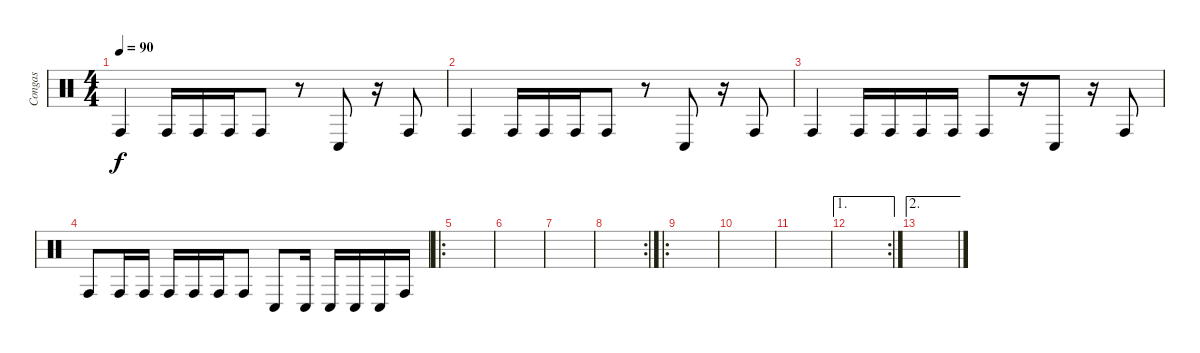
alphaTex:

\track ("Congas" "Congas") {instrument percussion}
\staff {score}
\articulation defaults
\ts (4 4)
\tempo 90
\clef neutral
\ks c "Conga high (hit)".4{dy f} "Conga high (hit)".16 "Conga high (hit)".16 "Conga high (hit)".16 "Conga high (hit)".8
r.8 "Conga low (hit)".8 r.16 "Conga high (hit)".8 |
"Conga high (hit)".4 "Conga high (hit)".16 "Conga high (hit)".16 "Conga high (hit)".16 "Conga high (hit)".8 r.8 "Conga low (hit)".8 r.16 "Conga high (hit)".8 |
"Conga high (hit)".4 "Conga high (hit)".16 "Conga high (hit)".16 "Conga high (hit)".16 "Conga high (hit)".16 "Conga high (hit)".8 r.16 "Conga low (hit)".8 r.16 "Conga high (hit)".8 |
"Conga high (hit)".8 "Conga high (hit)".16 "Conga high (hit)".16 "Conga high (hit)".16 "Conga high (hit)".16 "Conga high (hit)".16 "Conga high (hit)".8 "Conga low (hit)".8 "Conga low (hit)".16 "Conga low (hit)".16 "Conga low (hit)".16 "Conga low (hit)".16 "Conga high (hit)".16 |
\ro
|
|
|
\rc 2
|
\ro
|
|
|
\ae 1
\rc 2
|
\ae 2
